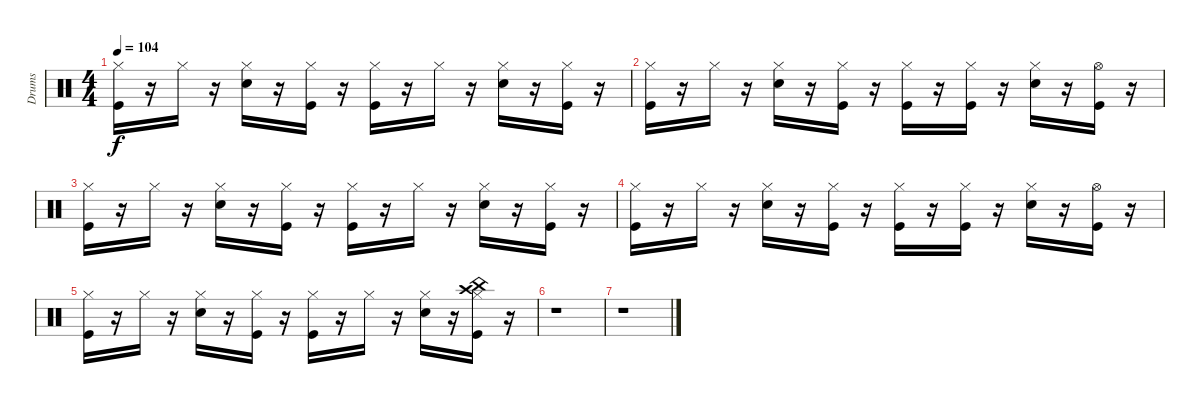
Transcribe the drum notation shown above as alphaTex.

\track ("Drums" "Drums") {instrument percussion}
\staff {score}
\articulation defaults
\ts (4 4)
\tempo 104
\clef neutral
\ks c
("Kick (hit)" "Hi-Hat (closed)").16{dy f} r.16 "Hi-Hat (closed)".16 r.16 ("Snare (hit) 2" "Hi-Hat (closed)").16 r.16 ("Kick (hit)" "Hi-Hat (closed)").16 r.16 ("Kick (hit)" "Hi-Hat (closed)").16 r.16 "Hi-Hat (closed)".16 r.16 ("Snare (hit) 2" "Hi-Hat (closed)").16 r.16 ("Kick (hit)" "Hi-Hat (closed)").16 r.16 |
("Kick (hit)" "Hi-Hat (closed)").16 r.16 "Hi-Hat (closed)".16 r.16 ("Snare (hit) 2" "Hi-Hat (closed)").16 r.16 ("Kick (hit)" "Hi-Hat (closed)").16 r.16 ("Kick (hit)" "Hi-Hat (closed)").16 r.16 ("Kick (hit)" "Hi-Hat (closed)").16 r.16 ("Snare (hit) 2" "Hi-Hat (closed)").16 r.16 ("Kick (hit)" "Hi-Hat (open)").16 r.16 |
("Kick (hit)" "Hi-Hat (closed)").16 r.16 "Hi-Hat (closed)".16 r.16 ("Snare (hit) 2" "Hi-Hat (closed)").16 r.16 ("Kick (hit)" "Hi-Hat (closed)").16 r.16 ("Kick (hit)" "Hi-Hat (closed)").16 r.16 "Hi-Hat (closed)".16 r.16 ("Snare (hit) 2" "Hi-Hat (closed)").16 r.16 ("Kick (hit)" "Hi-Hat (closed)").16 r.16 |
("Kick (hit)" "Hi-Hat (closed)").16 r.16 "Hi-Hat (closed)".16 r.16 ("Snare (hit) 2" "Hi-Hat (closed)").16 r.16 ("Kick (hit)" "Hi-Hat (closed)").16 r.16 ("Kick (hit)" "Hi-Hat (closed)").16 r.16 ("Kick (hit)" "Hi-Hat (closed)").16 r.16 ("Snare (hit) 2" "Hi-Hat (closed)").16 r.16 ("Kick (hit)" "Hi-Hat (open)").16 r.16 |
("Kick (hit)" "Hi-Hat (closed)").16 r.16 "Hi-Hat (closed)".16 r.16 ("Snare (hit) 2" "Hi-Hat (closed)").16 r.16 ("Kick (hit)" "Hi-Hat (closed)").16 r.16 ("Kick (hit)" "Hi-Hat (closed)").16 r.16 "Hi-Hat (closed)".16 r.16 ("Snare (hit) 2" "Hi-Hat (closed)").16 r.16 ("Crash high (hit)" "China (hit)" "Kick (hit)" "Hi-Hat (closed)").16 r.16 |
r.1 |
r.1
